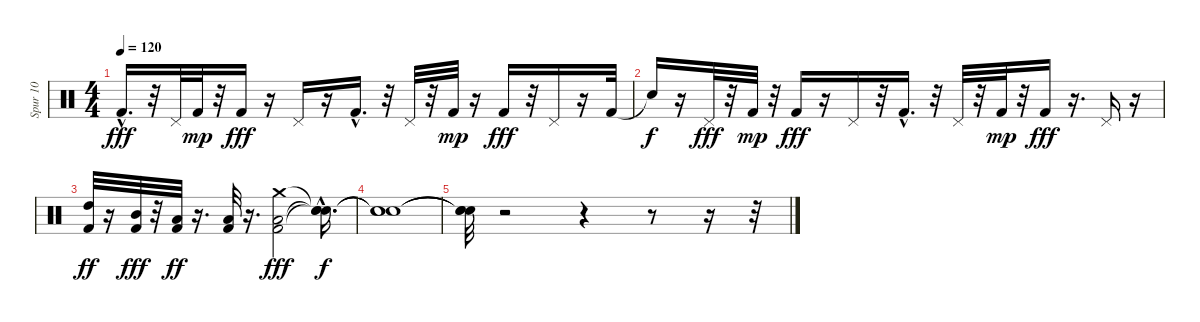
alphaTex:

\track ("Spur 10" "Spur 10") {instrument percussion}
\staff {score}
\articulation defaults
\ts (4 4)
\tempo 120
\clef neutral
\ks c "Kick (hit) 2"{hac}.16{d dy fff}
r.32 "Pedal Hi-Hat (hit)".32 "Kick (hit) 2".32{dy mp} r.32 "Kick (hit) 2".16{dy fff} r.16 "Pedal Hi-Hat (hit)".16 r.16 "Kick (hit) 2"{hac}.16{d} r.32 "Pedal Hi-Hat (hit)".32 r.32 "Kick (hit) 2".32{dy mp} r.16 "Kick (hit) 2".16{dy fff} r.32 "Pedal Hi-Hat (hit)".16 r.16 "Kick (hit) 2".32 |
"Snare (hit)"{t}.16{dy f} r.16 "Pedal Hi-Hat (hit)".32{dy fff} r.32 "Kick (hit) 2".32{dy mp} r.32 "Kick (hit) 2".16{dy fff} r.16 "Pedal Hi-Hat (hit)".16 r.32 "Kick (hit) 2"{hac}.16{d} r.32 "Pedal Hi-Hat (hit)".32 r.32 "Kick (hit) 2".32{dy mp} r.32 "Kick (hit) 2".16{dy fff} r.16{d} "Pedal Hi-Hat (hit)".16 r.16 |
("Kick (hit) 2" "High Tom (hit)").32{dy ff} r.16 ("Mid Tom (hit)" "Kick (hit) 2").32{dy fff} r.32 ("Kick (hit) 2" "Low Tom (hit)").32{dy ff} r.16{d} ("Kick (hit) 2" "Low Tom (hit)").32 r.16{d} ("Crash medium (hit)" "Kick (hit) 2" "Low Tom (hit)").2{dy fff} ("Snare (hit)"{hac t} "Snare (hit)"{hac t} "Snare (hit)"{hac t}).16{d dy f} |
("Snare (hit)"{t} "Snare (hit)"{t} "Snare (hit)"{t}).1 |
("Snare (hit)"{t} "Snare (hit)"{t} "Snare (hit)"{t}).32 r.2 r.4 r.8 r.16 r.32
